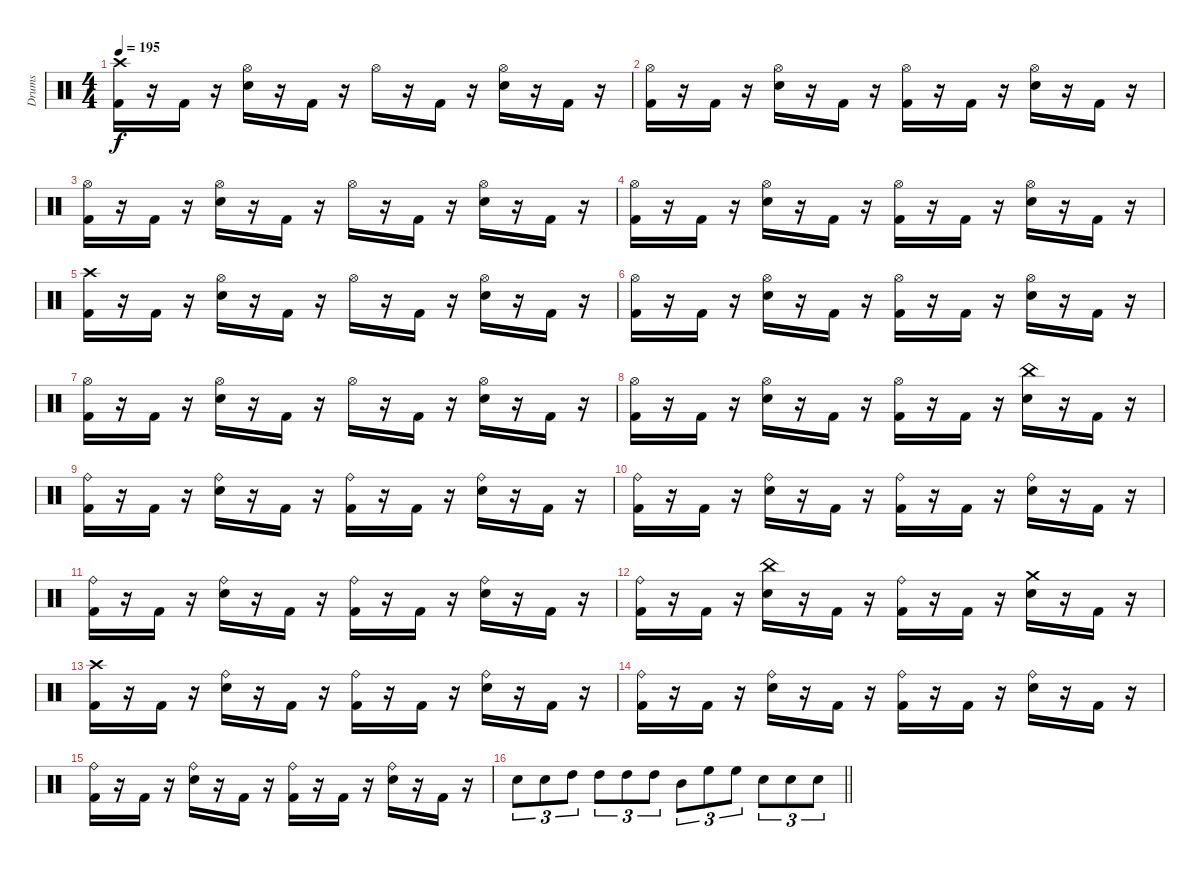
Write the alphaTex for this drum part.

\track ("Drums" "Drums") {instrument percussion}
\staff {score}
\articulation defaults
\ts (4 4)
\tempo 195
\clef neutral
\ks c
("Crash high (hit)" "Kick (hit) 2").16{dy f} r.16 "Kick (hit) 2".16 r.16 ("Hi-Hat (open)" "Electric Snare (hit)").16 r.16 "Kick (hit) 2".16 r.16 "Hi-Hat (open)".16 r.16 "Kick (hit) 2".16 r.16 ("Hi-Hat (open)" "Electric Snare (hit)").16 r.16 "Kick (hit) 2".16 r.16 |
("Hi-Hat (open)" "Kick (hit) 2").16 r.16 "Kick (hit) 2".16 r.16 ("Hi-Hat (open)" "Electric Snare (hit)").16 r.16 "Kick (hit) 2".16 r.16 ("Hi-Hat (open)" "Kick (hit) 2").16 r.16 "Kick (hit) 2".16 r.16 ("Hi-Hat (open)" "Electric Snare (hit)").16 r.16 "Kick (hit) 2".16 r.16 |
("Hi-Hat (open)" "Kick (hit) 2").16 r.16 "Kick (hit) 2".16 r.16 ("Hi-Hat (open)" "Electric Snare (hit)").16 r.16 "Kick (hit) 2".16 r.16 "Hi-Hat (open)".16 r.16 "Kick (hit) 2".16 r.16 ("Hi-Hat (open)" "Electric Snare (hit)").16 r.16 "Kick (hit) 2".16 r.16 |
("Hi-Hat (open)" "Kick (hit) 2").16 r.16 "Kick (hit) 2".16 r.16 ("Hi-Hat (open)" "Electric Snare (hit)").16 r.16 "Kick (hit) 2".16 r.16 ("Hi-Hat (open)" "Kick (hit) 2").16 r.16 "Kick (hit) 2".16 r.16 ("Hi-Hat (open)" "Electric Snare (hit)").16 r.16 "Kick (hit) 2".16 r.16 |
("Crash high (hit)" "Kick (hit) 2").16 r.16 "Kick (hit) 2".16 r.16 ("Hi-Hat (open)" "Electric Snare (hit)").16 r.16 "Kick (hit) 2".16 r.16 "Hi-Hat (open)".16 r.16 "Kick (hit) 2".16 r.16 ("Hi-Hat (open)" "Electric Snare (hit)").16 r.16 "Kick (hit) 2".16 r.16 |
("Hi-Hat (open)" "Kick (hit) 2").16 r.16 "Kick (hit) 2".16 r.16 ("Hi-Hat (open)" "Electric Snare (hit)").16 r.16 "Kick (hit) 2".16 r.16 ("Hi-Hat (open)" "Kick (hit) 2").16 r.16 "Kick (hit) 2".16 r.16 ("Hi-Hat (open)" "Electric Snare (hit)").16 r.16 "Kick (hit) 2".16 r.16 |
("Hi-Hat (open)" "Kick (hit) 2").16 r.16 "Kick (hit) 2".16 r.16 ("Hi-Hat (open)" "Electric Snare (hit)").16 r.16 "Kick (hit) 2".16 r.16 "Hi-Hat (open)".16 r.16 "Kick (hit) 2".16 r.16 ("Hi-Hat (open)" "Electric Snare (hit)").16 r.16 "Kick (hit) 2".16 r.16 |
("Hi-Hat (open)" "Kick (hit) 2").16 r.16 "Kick (hit) 2".16 r.16 ("Hi-Hat (open)" "Electric Snare (hit)").16 r.16 "Kick (hit) 2".16 r.16 ("Hi-Hat (open)" "Kick (hit) 2").16 r.16 "Kick (hit) 2".16 r.16 ("China (hit)" "Electric Snare (hit)").16 r.16 "Kick (hit) 2".16 r.16 |
("Ride (bell)" "Kick (hit) 2").16 r.16 "Kick (hit) 2".16 r.16 ("Ride (bell)" "Electric Snare (hit)").16 r.16 "Kick (hit) 2".16 r.16 ("Ride (bell)" "Kick (hit) 2").16 r.16 "Kick (hit) 2".16 r.16 ("Ride (bell)" "Electric Snare (hit)").16 r.16 "Kick (hit) 2".16 r.16 |
("Ride (bell)" "Kick (hit) 2").16 r.16 "Kick (hit) 2".16 r.16 ("Ride (bell)" "Electric Snare (hit)").16 r.16 "Kick (hit) 2".16 r.16 ("Ride (bell)" "Kick (hit) 2").16 r.16 "Kick (hit) 2".16 r.16 ("Ride (bell)" "Electric Snare (hit)").16 r.16 "Kick (hit) 2".16 r.16 |
("Ride (bell)" "Kick (hit) 2").16 r.16 "Kick (hit) 2".16 r.16 ("Ride (bell)" "Electric Snare (hit)").16 r.16 "Kick (hit) 2".16 r.16 ("Ride (bell)" "Kick (hit) 2").16 r.16 "Kick (hit) 2".16 r.16 ("Ride (bell)" "Electric Snare (hit)").16 r.16 "Kick (hit) 2".16 r.16 |
("Ride (bell)" "Kick (hit) 2").16 r.16 "Kick (hit) 2".16 r.16 ("China (hit)" "Electric Snare (hit)").16 r.16 "Kick (hit) 2".16 r.16 ("Ride (bell)" "Kick (hit) 2").16 r.16 "Kick (hit) 2".16 r.16 ("Crash medium (hit)" "Electric Snare (hit)").16 r.16 "Kick (hit) 2".16 r.16 |
("Crash high (hit)" "Kick (hit) 2").16 r.16 "Kick (hit) 2".16 r.16 ("Ride (bell)" "Electric Snare (hit)").16 r.16 "Kick (hit) 2".16 r.16 ("Ride (bell)" "Kick (hit) 2").16 r.16 "Kick (hit) 2".16 r.16 ("Ride (bell)" "Electric Snare (hit)").16 r.16 "Kick (hit) 2".16 r.16 |
("Ride (bell)" "Kick (hit) 2").16 r.16 "Kick (hit) 2".16 r.16 ("Ride (bell)" "Electric Snare (hit)").16 r.16 "Kick (hit) 2".16 r.16 ("Ride (bell)" "Kick (hit) 2").16 r.16 "Kick (hit) 2".16 r.16 ("Ride (bell)" "Electric Snare (hit)").16 r.16 "Kick (hit) 2".16 r.16 |
("Ride (bell)" "Kick (hit) 2").16 r.16 "Kick (hit) 2".16 r.16 ("Ride (bell)" "Electric Snare (hit)").16 r.16 "Kick (hit) 2".16 r.16 ("Ride (bell)" "Kick (hit) 2").16 r.16 "Kick (hit) 2".16 r.16 ("Ride (bell)" "Electric Snare (hit)").16 r.16 "Kick (hit) 2".16 r.16 |
\barLineRight lightlight "Electric Snare (hit)".8{tu (3 2)} "Electric Snare (hit)".8{tu (3 2)} "High Tom (hit)".8{tu (3 2)} "High Tom (hit)".8{tu (3 2)} "High Tom (hit)".8{tu (3 2)} "High Tom (hit)".8{tu (3 2)} "Mid Tom (hit)".8{tu (3 2)} "High Floor Tom (hit)".8{tu (3 2)} "High Floor Tom (hit)".8{tu (3 2)} "Electric Snare (hit)".8{tu (3 2)} "Electric Snare (hit)".8{tu (3 2)} "Electric Snare (hit)".8{tu (3 2)}
